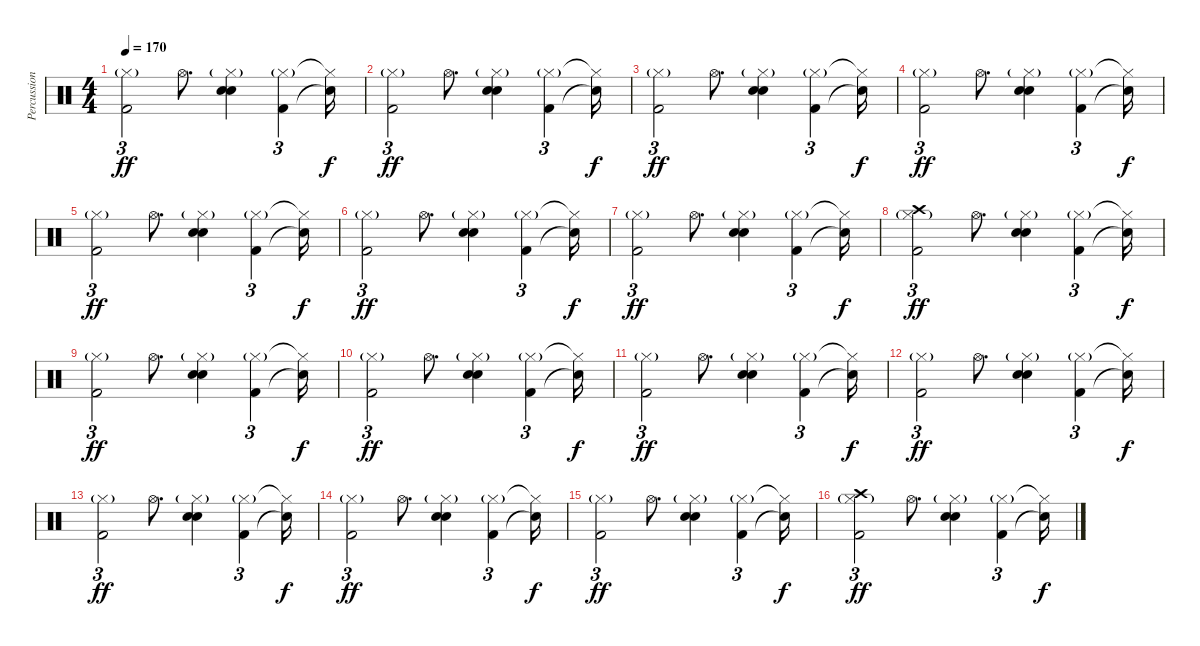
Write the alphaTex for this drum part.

\track ("Percussion" "Percussion") {instrument percussion bank 127}
\staff {score}
\articulation defaults
\ts (4 4)
\tempo 170
\clef neutral
\ks c
("Hi-Hat (closed)"{g} "Kick (hit) 2").2{tu (3 2) dy ff} "Hi-Hat (open)".8{d} ("Hi-Hat (closed)"{g} "Snare (hit) 2" "Electric Snare (hit)").4 ("Hi-Hat (closed)"{g} "Kick (hit) 2").4{tu (3 2)} ("Hi-Hat (closed)"{t} "Snare (hit)"{t}).16{dy f} |
("Hi-Hat (closed)"{g} "Kick (hit) 2").2{tu (3 2) dy ff} "Hi-Hat (open)".8{d} ("Hi-Hat (closed)"{g} "Snare (hit) 2" "Electric Snare (hit)").4 ("Hi-Hat (closed)"{g} "Kick (hit) 2").4{tu (3 2)} ("Hi-Hat (closed)"{t} "Snare (hit)"{t}).16{dy f} |
("Hi-Hat (closed)"{g} "Kick (hit) 2").2{tu (3 2) dy ff} "Hi-Hat (open)".8{d} ("Hi-Hat (closed)"{g} "Snare (hit) 2" "Electric Snare (hit)").4 ("Hi-Hat (closed)"{g} "Kick (hit) 2").4{tu (3 2)} ("Hi-Hat (closed)"{t} "Snare (hit)"{t}).16{dy f} |
("Hi-Hat (closed)"{g} "Kick (hit) 2").2{tu (3 2) dy ff} "Hi-Hat (open)".8{d} ("Hi-Hat (closed)"{g} "Snare (hit) 2" "Electric Snare (hit)").4 ("Hi-Hat (closed)"{g} "Kick (hit) 2").4{tu (3 2)} ("Hi-Hat (closed)"{t} "Snare (hit)"{t}).16{dy f} |
("Hi-Hat (closed)"{g} "Kick (hit) 2").2{tu (3 2) dy ff} "Hi-Hat (open)".8{d} ("Hi-Hat (closed)"{g} "Snare (hit) 2" "Electric Snare (hit)").4 ("Hi-Hat (closed)"{g} "Kick (hit) 2").4{tu (3 2)} ("Hi-Hat (closed)"{t} "Snare (hit)"{t}).16{dy f} |
("Hi-Hat (closed)"{g} "Kick (hit) 2").2{tu (3 2) dy ff} "Hi-Hat (open)".8{d} ("Hi-Hat (closed)"{g} "Snare (hit) 2" "Electric Snare (hit)").4 ("Hi-Hat (closed)"{g} "Kick (hit) 2").4{tu (3 2)} ("Hi-Hat (closed)"{t} "Snare (hit)"{t}).16{dy f} |
("Hi-Hat (closed)"{g} "Kick (hit) 2").2{tu (3 2) dy ff} "Hi-Hat (open)".8{d} ("Hi-Hat (closed)"{g} "Snare (hit) 2" "Electric Snare (hit)").4 ("Hi-Hat (closed)"{g} "Kick (hit) 2").4{tu (3 2)} ("Hi-Hat (closed)"{t} "Snare (hit)"{t}).16{dy f} |
("Hi-Hat (closed)"{g} "Kick (hit) 2" "Crash high (hit)").2{tu (3 2) dy ff} "Hi-Hat (open)".8{d} ("Hi-Hat (closed)"{g} "Snare (hit) 2" "Electric Snare (hit)").4 ("Hi-Hat (closed)"{g} "Kick (hit) 2").4{tu (3 2)} ("Hi-Hat (closed)"{t} "Snare (hit)"{t}).16{dy f} |
("Hi-Hat (closed)"{g} "Kick (hit) 2").2{tu (3 2) dy ff} "Hi-Hat (open)".8{d} ("Hi-Hat (closed)"{g} "Snare (hit) 2" "Electric Snare (hit)").4 ("Hi-Hat (closed)"{g} "Kick (hit) 2").4{tu (3 2)} ("Hi-Hat (closed)"{t} "Snare (hit)"{t}).16{dy f} |
("Hi-Hat (closed)"{g} "Kick (hit) 2").2{tu (3 2) dy ff} "Hi-Hat (open)".8{d} ("Hi-Hat (closed)"{g} "Snare (hit) 2" "Electric Snare (hit)").4 ("Hi-Hat (closed)"{g} "Kick (hit) 2").4{tu (3 2)} ("Hi-Hat (closed)"{t} "Snare (hit)"{t}).16{dy f} |
("Hi-Hat (closed)"{g} "Kick (hit) 2").2{tu (3 2) dy ff} "Hi-Hat (open)".8{d} ("Hi-Hat (closed)"{g} "Snare (hit) 2" "Electric Snare (hit)").4 ("Hi-Hat (closed)"{g} "Kick (hit) 2").4{tu (3 2)} ("Hi-Hat (closed)"{t} "Snare (hit)"{t}).16{dy f} |
("Hi-Hat (closed)"{g} "Kick (hit) 2").2{tu (3 2) dy ff} "Hi-Hat (open)".8{d} ("Hi-Hat (closed)"{g} "Snare (hit) 2" "Electric Snare (hit)").4 ("Hi-Hat (closed)"{g} "Kick (hit) 2").4{tu (3 2)} ("Hi-Hat (closed)"{t} "Snare (hit)"{t}).16{dy f} |
("Hi-Hat (closed)"{g} "Kick (hit) 2").2{tu (3 2) dy ff} "Hi-Hat (open)".8{d} ("Hi-Hat (closed)"{g} "Snare (hit) 2" "Electric Snare (hit)").4 ("Hi-Hat (closed)"{g} "Kick (hit) 2").4{tu (3 2)} ("Hi-Hat (closed)"{t} "Snare (hit)"{t}).16{dy f} |
("Hi-Hat (closed)"{g} "Kick (hit) 2").2{tu (3 2) dy ff} "Hi-Hat (open)".8{d} ("Hi-Hat (closed)"{g} "Snare (hit) 2" "Electric Snare (hit)").4 ("Hi-Hat (closed)"{g} "Kick (hit) 2").4{tu (3 2)} ("Hi-Hat (closed)"{t} "Snare (hit)"{t}).16{dy f} |
("Hi-Hat (closed)"{g} "Kick (hit) 2").2{tu (3 2) dy ff} "Hi-Hat (open)".8{d} ("Hi-Hat (closed)"{g} "Snare (hit) 2" "Electric Snare (hit)").4 ("Hi-Hat (closed)"{g} "Kick (hit) 2").4{tu (3 2)} ("Hi-Hat (closed)"{t} "Snare (hit)"{t}).16{dy f} |
("Hi-Hat (closed)"{g} "Kick (hit) 2" "Crash high (hit)").2{tu (3 2) dy ff} "Hi-Hat (open)".8{d} ("Hi-Hat (closed)"{g} "Snare (hit) 2" "Electric Snare (hit)").4 ("Hi-Hat (closed)"{g} "Kick (hit) 2").4{tu (3 2)} ("Hi-Hat (closed)"{t} "Snare (hit)"{t}).16{dy f}
